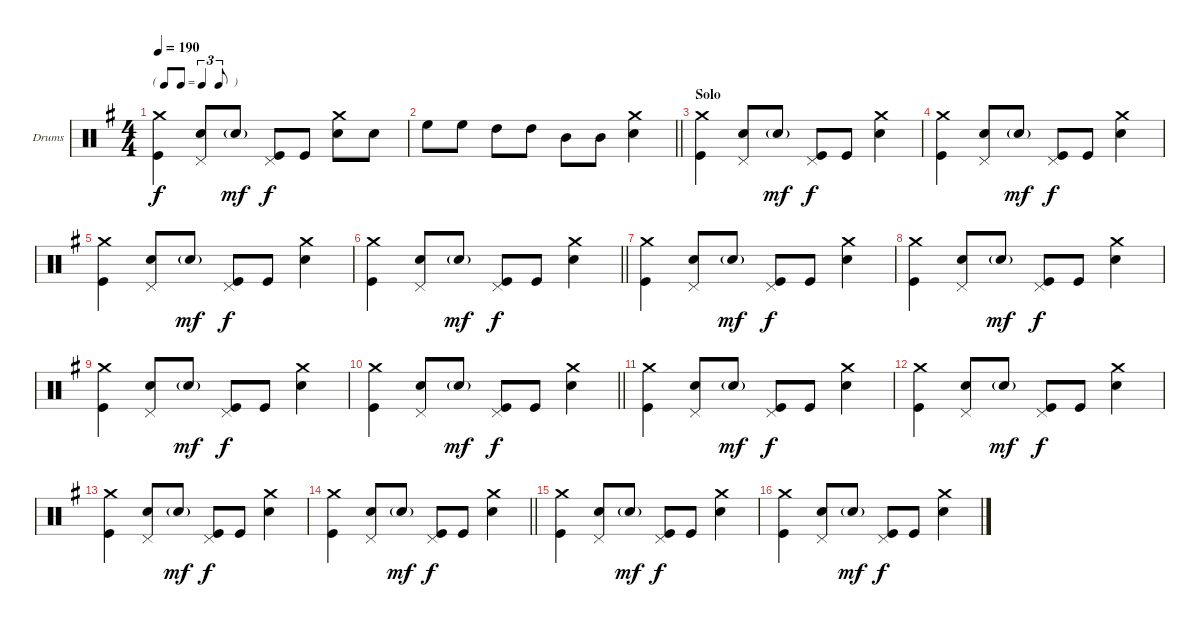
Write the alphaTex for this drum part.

\bracketExtendMode groupsimilarinstruments
\firstSystemTrackNameOrientation horizontal
\otherSystemsTrackNameOrientation horizontal
\track ("Drums" "Drums") {instrument percussion}
\staff {score}
\articulation defaults
\ts (4 4)
\tf triplet8th
\tempo 190
\clef neutral
\ks g
("Crash medium (hit)" "Kick (hit)").4{dy f} ("Pedal Hi-Hat (hit)" "Snare (hit) 2").8 "Snare (hit) 2"{g}.8{dy mf} ("Pedal Hi-Hat (hit)" "Kick (hit)").8{dy f} "Kick (hit)".8 ("Crash medium (hit)" "Snare (hit) 2").8 "Snare (hit) 2".8 |
\barLineRight lightlight "High Floor Tom (hit)".8 "High Floor Tom (hit)".8 "High Tom (hit)".8 "High Tom (hit)".8 "Mid Tom (hit)".8 "Mid Tom (hit)".8
("Crash medium (hit)" "Snare (hit) 2").4 |
\section ("" "Solo")
("Crash medium (hit)" "Kick (hit)").4 ("Pedal Hi-Hat (hit)" "Snare (hit) 2").8 "Snare (hit) 2"{g}.8{dy mf} ("Pedal Hi-Hat (hit)" "Kick (hit)").8{dy f} "Kick (hit)".8 ("Crash medium (hit)" "Snare (hit) 2").4 |
("Crash medium (hit)" "Kick (hit)").4 ("Pedal Hi-Hat (hit)" "Snare (hit) 2").8 "Snare (hit) 2"{g}.8{dy mf} ("Pedal Hi-Hat (hit)" "Kick (hit)").8{dy f} "Kick (hit)".8 ("Crash medium (hit)" "Snare (hit) 2").4 |
("Crash medium (hit)" "Kick (hit)").4 ("Pedal Hi-Hat (hit)" "Snare (hit) 2").8 "Snare (hit) 2"{g}.8{dy mf} ("Pedal Hi-Hat (hit)" "Kick (hit)").8{dy f} "Kick (hit)".8 ("Crash medium (hit)" "Snare (hit) 2").4 |
\barLineRight lightlight
("Crash medium (hit)" "Kick (hit)").4 ("Pedal Hi-Hat (hit)" "Snare (hit) 2").8 "Snare (hit) 2"{g}.8{dy mf} ("Pedal Hi-Hat (hit)" "Kick (hit)").8{dy f} "Kick (hit)".8 ("Crash medium (hit)" "Snare (hit) 2").4 |
("Crash medium (hit)" "Kick (hit)").4 ("Pedal Hi-Hat (hit)" "Snare (hit) 2").8 "Snare (hit) 2"{g}.8{dy mf} ("Pedal Hi-Hat (hit)" "Kick (hit)").8{dy f} "Kick (hit)".8 ("Crash medium (hit)" "Snare (hit) 2").4 |
("Crash medium (hit)" "Kick (hit)").4 ("Pedal Hi-Hat (hit)" "Snare (hit) 2").8 "Snare (hit) 2"{g}.8{dy mf} ("Pedal Hi-Hat (hit)" "Kick (hit)").8{dy f} "Kick (hit)".8 ("Crash medium (hit)" "Snare (hit) 2").4 |
("Crash medium (hit)" "Kick (hit)").4 ("Pedal Hi-Hat (hit)" "Snare (hit) 2").8 "Snare (hit) 2"{g}.8{dy mf} ("Pedal Hi-Hat (hit)" "Kick (hit)").8{dy f} "Kick (hit)".8 ("Crash medium (hit)" "Snare (hit) 2").4 |
\barLineRight lightlight
("Crash medium (hit)" "Kick (hit)").4 ("Pedal Hi-Hat (hit)" "Snare (hit) 2").8 "Snare (hit) 2"{g}.8{dy mf} ("Pedal Hi-Hat (hit)" "Kick (hit)").8{dy f} "Kick (hit)".8 ("Crash medium (hit)" "Snare (hit) 2").4 |
("Crash medium (hit)" "Kick (hit)").4 ("Pedal Hi-Hat (hit)" "Snare (hit) 2").8 "Snare (hit) 2"{g}.8{dy mf} ("Pedal Hi-Hat (hit)" "Kick (hit)").8{dy f} "Kick (hit)".8 ("Crash medium (hit)" "Snare (hit) 2").4 |
("Crash medium (hit)" "Kick (hit)").4 ("Pedal Hi-Hat (hit)" "Snare (hit) 2").8 "Snare (hit) 2"{g}.8{dy mf} ("Pedal Hi-Hat (hit)" "Kick (hit)").8{dy f} "Kick (hit)".8 ("Crash medium (hit)" "Snare (hit) 2").4 |
("Crash medium (hit)" "Kick (hit)").4 ("Pedal Hi-Hat (hit)" "Snare (hit) 2").8 "Snare (hit) 2"{g}.8{dy mf} ("Pedal Hi-Hat (hit)" "Kick (hit)").8{dy f} "Kick (hit)".8 ("Crash medium (hit)" "Snare (hit) 2").4 |
\barLineRight lightlight
("Crash medium (hit)" "Kick (hit)").4 ("Pedal Hi-Hat (hit)" "Snare (hit) 2").8 "Snare (hit) 2"{g}.8{dy mf} ("Pedal Hi-Hat (hit)" "Kick (hit)").8{dy f} "Kick (hit)".8 ("Crash medium (hit)" "Snare (hit) 2").4 |
("Crash medium (hit)" "Kick (hit)").4 ("Pedal Hi-Hat (hit)" "Snare (hit) 2").8 "Snare (hit) 2"{g}.8{dy mf} ("Pedal Hi-Hat (hit)" "Kick (hit)").8{dy f} "Kick (hit)".8 ("Crash medium (hit)" "Snare (hit) 2").4 |
("Crash medium (hit)" "Kick (hit)").4 ("Pedal Hi-Hat (hit)" "Snare (hit) 2").8 "Snare (hit) 2"{g}.8{dy mf} ("Pedal Hi-Hat (hit)" "Kick (hit)").8{dy f} "Kick (hit)".8 ("Crash medium (hit)" "Snare (hit) 2").4
